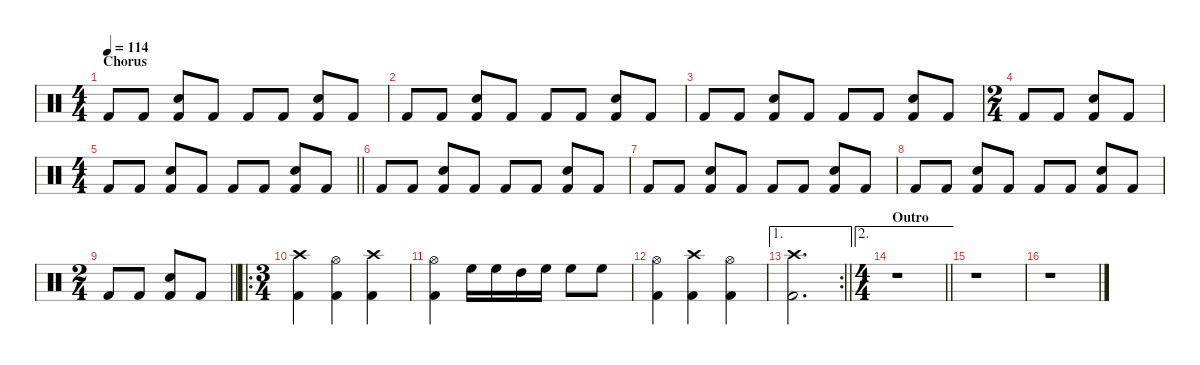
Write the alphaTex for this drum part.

\defaultSystemsLayout 4
\hideDynamics
\bracketExtendMode nobrackets
\singleTrackTrackNamePolicy hidden
\multiTrackTrackNamePolicy hidden
\firstSystemTrackNameMode fullname
\firstSystemTrackNameOrientation horizontal
\otherSystemsTrackNameOrientation horizontal
\track ("Percussion" "drm.") {defaultSystemsLayout 4 instrument percussion}
\staff {score}
\articulation defaults
\ts (4 4)
\section ("" "Chorus")
\tempo 114
\clef neutral
\ks c "Kick (hit) 2".8{dy fff beam Up} "Kick (hit) 2".8{beam Up}
("Snare (hit) 2" "Kick (hit) 2").8{dy mf beam Up} "Kick (hit) 2".8{dy fff beam Up} "Kick (hit) 2".8{beam Up} "Kick (hit) 2".8{beam Up} ("Snare (hit) 2" "Kick (hit) 2").8{dy mf beam Up} "Kick (hit) 2".8{dy fff beam Up} |
"Kick (hit) 2".8{beam Up} "Kick (hit) 2".8{beam Up} ("Snare (hit) 2" "Kick (hit) 2").8{dy mf beam Up} "Kick (hit) 2".8{dy fff beam Up} "Kick (hit) 2".8{beam Up} "Kick (hit) 2".8{beam Up} ("Snare (hit) 2" "Kick (hit) 2").8{dy mf beam Up} "Kick (hit) 2".8{dy fff beam Up} |
"Kick (hit) 2".8{beam Up} "Kick (hit) 2".8{beam Up} ("Snare (hit) 2" "Kick (hit) 2").8{dy mf beam Up} "Kick (hit) 2".8{dy fff beam Up} "Kick (hit) 2".8{beam Up} "Kick (hit) 2".8{beam Up} ("Snare (hit) 2" "Kick (hit) 2").8{dy mf beam Up} "Kick (hit) 2".8{dy fff beam Up} |
\ts (2 4)
\beaming (8 2 2 2 2)
"Kick (hit) 2".8{beam Up} "Kick (hit) 2".8{beam Up} ("Snare (hit) 2" "Kick (hit) 2").8{dy mf beam Up} "Kick (hit) 2".8{dy fff beam Up} |
\ts (4 4)
\beaming (8 2 2 2 2)
\barLineRight lightlight "Kick (hit) 2".8{beam Up} "Kick (hit) 2".8{beam Up}
("Snare (hit) 2" "Kick (hit) 2").8{dy mf beam Up} "Kick (hit) 2".8{dy fff beam Up} "Kick (hit) 2".8{beam Up} "Kick (hit) 2".8{beam Up} ("Snare (hit) 2" "Kick (hit) 2").8{dy mf beam Up} "Kick (hit) 2".8{dy fff beam Up} |
"Kick (hit) 2".8{beam Up} "Kick (hit) 2".8{beam Up} ("Snare (hit) 2" "Kick (hit) 2").8{dy mf beam Up} "Kick (hit) 2".8{dy fff beam Up} "Kick (hit) 2".8{beam Up} "Kick (hit) 2".8{beam Up} ("Snare (hit) 2" "Kick (hit) 2").8{dy mf beam Up} "Kick (hit) 2".8{dy fff beam Up} |
"Kick (hit) 2".8{beam Up} "Kick (hit) 2".8{beam Up} ("Snare (hit) 2" "Kick (hit) 2").8{dy mf beam Up} "Kick (hit) 2".8{dy fff beam Up} "Kick (hit) 2".8{beam Up} "Kick (hit) 2".8{beam Up} ("Snare (hit) 2" "Kick (hit) 2").8{dy mf beam Up} "Kick (hit) 2".8{dy fff beam Up} |
"Kick (hit) 2".8{beam Up} "Kick (hit) 2".8{beam Up} ("Snare (hit) 2" "Kick (hit) 2").8{dy mf beam Up} "Kick (hit) 2".8{dy fff beam Up} "Kick (hit) 2".8{beam Up} "Kick (hit) 2".8{beam Up} ("Snare (hit) 2" "Kick (hit) 2").8{dy mf beam Up} "Kick (hit) 2".8{dy fff beam Up} |
\ts (2 4)
\beaming (8 2 2 2 2)
\barLineRight lightlight "Kick (hit) 2".8{beam Up} "Kick (hit) 2".8{beam Up}
("Snare (hit) 2" "Kick (hit) 2").8{dy mf beam Up} "Kick (hit) 2".8{dy fff beam Up} |
\ro
\ts (3 4)
\beaming (8 2 2 2 2)
("Crash high (hit)" "Kick (hit) 2").4{dy f beam Down} ("Hi-Hat (open)" "Kick (hit) 2").4{beam Down} ("Crash high (hit)" "Kick (hit) 2").4{beam Down} |
("Hi-Hat (open)" "Kick (hit) 2").4{beam Down} "High Floor Tom (hit)".16{dy mf beam Down} "High Floor Tom (hit)".16{beam Down} "High Tom (hit)".16{beam Down} "High Floor Tom (hit)".16{beam Down} "High Floor Tom (hit)".8{beam Down} "High Floor Tom (hit)".8{beam Down} |
("Hi-Hat (open)" "Kick (hit) 2").4{dy f beam Down} ("Crash high (hit)" "Kick (hit) 2").4{beam Down} ("Hi-Hat (open)" "Kick (hit) 2").4{beam Down} |
\ae 1
\rc 2
\barLineRight lightlight
("Crash high (hit)" "Kick (hit) 2").2{d beam Down} |
\ae 2
\ts (4 4)
\beaming (8 2 2 2 2)
\section ("" "Outro")
\barLineRight lightlight
r.1{beam Down} |
r.1{beam Down} |
r.1{beam Down}
